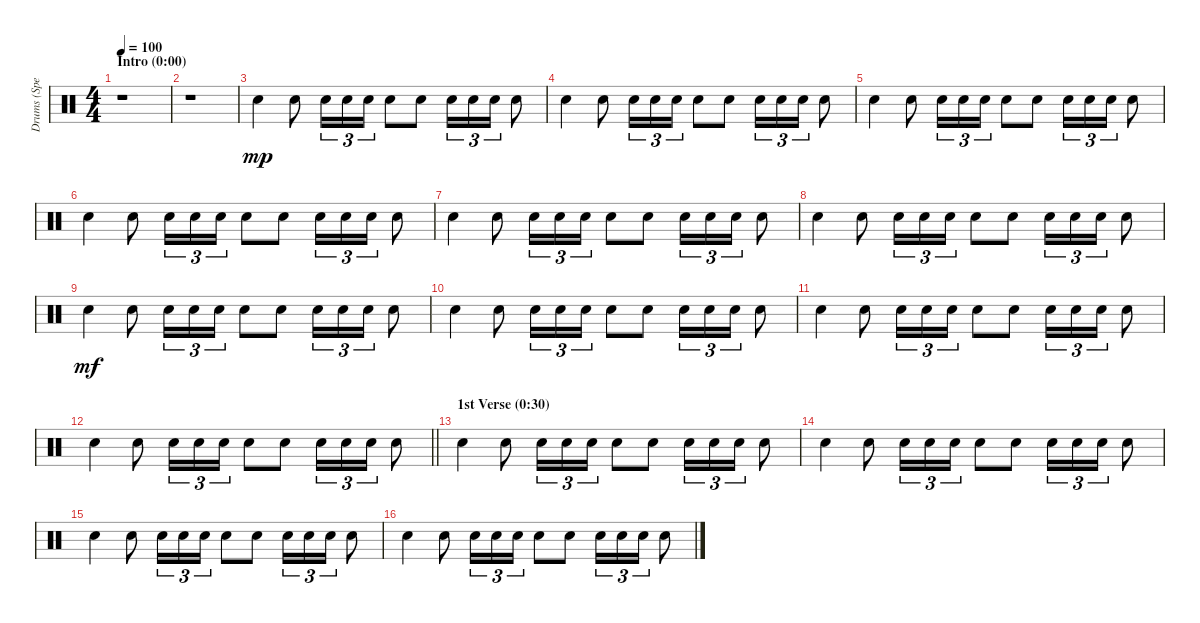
\track ("Drums (Spencer Dryden)" "Drums (Spe") {instrument percussion}
\staff {score}
\articulation defaults
\ts (4 4)
\section ("" "Intro (0:00)")
\tempo 100
\clef neutral
\ks c
r.1{dy mp} |
r.1 |
"Snare (hit) 2".4 "Snare (hit) 2".8 "Snare (hit) 2".16{tu (3 2)} "Snare (hit) 2".16{tu (3 2)} "Snare (hit) 2".16{tu (3 2)} "Snare (hit) 2".8 "Snare (hit) 2".8 "Snare (hit) 2".16{tu (3 2)} "Snare (hit) 2".16{tu (3 2)} "Snare (hit) 2".16{tu (3 2)} "Snare (hit) 2".8 |
"Snare (hit) 2".4 "Snare (hit) 2".8 "Snare (hit) 2".16{tu (3 2)} "Snare (hit) 2".16{tu (3 2)} "Snare (hit) 2".16{tu (3 2)} "Snare (hit) 2".8 "Snare (hit) 2".8 "Snare (hit) 2".16{tu (3 2)} "Snare (hit) 2".16{tu (3 2)} "Snare (hit) 2".16{tu (3 2)} "Snare (hit) 2".8 |
"Snare (hit) 2".4 "Snare (hit) 2".8 "Snare (hit) 2".16{tu (3 2)} "Snare (hit) 2".16{tu (3 2)} "Snare (hit) 2".16{tu (3 2)} "Snare (hit) 2".8 "Snare (hit) 2".8 "Snare (hit) 2".16{tu (3 2)} "Snare (hit) 2".16{tu (3 2)} "Snare (hit) 2".16{tu (3 2)} "Snare (hit) 2".8 |
"Snare (hit) 2".4 "Snare (hit) 2".8 "Snare (hit) 2".16{tu (3 2)} "Snare (hit) 2".16{tu (3 2)} "Snare (hit) 2".16{tu (3 2)} "Snare (hit) 2".8 "Snare (hit) 2".8 "Snare (hit) 2".16{tu (3 2)} "Snare (hit) 2".16{tu (3 2)} "Snare (hit) 2".16{tu (3 2)} "Snare (hit) 2".8 |
"Snare (hit) 2".4 "Snare (hit) 2".8 "Snare (hit) 2".16{tu (3 2)} "Snare (hit) 2".16{tu (3 2)} "Snare (hit) 2".16{tu (3 2)} "Snare (hit) 2".8 "Snare (hit) 2".8 "Snare (hit) 2".16{tu (3 2)} "Snare (hit) 2".16{tu (3 2)} "Snare (hit) 2".16{tu (3 2)} "Snare (hit) 2".8 |
"Snare (hit) 2".4 "Snare (hit) 2".8 "Snare (hit) 2".16{tu (3 2)} "Snare (hit) 2".16{tu (3 2)} "Snare (hit) 2".16{tu (3 2)} "Snare (hit) 2".8 "Snare (hit) 2".8 "Snare (hit) 2".16{tu (3 2)} "Snare (hit) 2".16{tu (3 2)} "Snare (hit) 2".16{tu (3 2)} "Snare (hit) 2".8 |
"Snare (hit) 2".4{dy mf} "Snare (hit) 2".8 "Snare (hit) 2".16{tu (3 2)} "Snare (hit) 2".16{tu (3 2)} "Snare (hit) 2".16{tu (3 2)} "Snare (hit) 2".8 "Snare (hit) 2".8 "Snare (hit) 2".16{tu (3 2)} "Snare (hit) 2".16{tu (3 2)} "Snare (hit) 2".16{tu (3 2)} "Snare (hit) 2".8 |
"Snare (hit) 2".4 "Snare (hit) 2".8 "Snare (hit) 2".16{tu (3 2)} "Snare (hit) 2".16{tu (3 2)} "Snare (hit) 2".16{tu (3 2)} "Snare (hit) 2".8 "Snare (hit) 2".8 "Snare (hit) 2".16{tu (3 2)} "Snare (hit) 2".16{tu (3 2)} "Snare (hit) 2".16{tu (3 2)} "Snare (hit) 2".8 |
"Snare (hit) 2".4 "Snare (hit) 2".8 "Snare (hit) 2".16{tu (3 2)} "Snare (hit) 2".16{tu (3 2)} "Snare (hit) 2".16{tu (3 2)} "Snare (hit) 2".8 "Snare (hit) 2".8 "Snare (hit) 2".16{tu (3 2)} "Snare (hit) 2".16{tu (3 2)} "Snare (hit) 2".16{tu (3 2)} "Snare (hit) 2".8 |
\barLineRight lightlight "Snare (hit) 2".4 "Snare (hit) 2".8 "Snare (hit) 2".16{tu (3 2)} "Snare (hit) 2".16{tu (3 2)} "Snare (hit) 2".16{tu (3 2)} "Snare (hit) 2".8 "Snare (hit) 2".8 "Snare (hit) 2".16{tu (3 2)} "Snare (hit) 2".16{tu (3 2)} "Snare (hit) 2".16{tu (3 2)} "Snare (hit) 2".8
|
\section ("" "1st Verse (0:30)")
"Snare (hit) 2".4 "Snare (hit) 2".8 "Snare (hit) 2".16{tu (3 2)} "Snare (hit) 2".16{tu (3 2)} "Snare (hit) 2".16{tu (3 2)} "Snare (hit) 2".8 "Snare (hit) 2".8 "Snare (hit) 2".16{tu (3 2)} "Snare (hit) 2".16{tu (3 2)} "Snare (hit) 2".16{tu (3 2)} "Snare (hit) 2".8 |
"Snare (hit) 2".4 "Snare (hit) 2".8 "Snare (hit) 2".16{tu (3 2)} "Snare (hit) 2".16{tu (3 2)} "Snare (hit) 2".16{tu (3 2)} "Snare (hit) 2".8 "Snare (hit) 2".8 "Snare (hit) 2".16{tu (3 2)} "Snare (hit) 2".16{tu (3 2)} "Snare (hit) 2".16{tu (3 2)} "Snare (hit) 2".8 |
"Snare (hit) 2".4 "Snare (hit) 2".8 "Snare (hit) 2".16{tu (3 2)} "Snare (hit) 2".16{tu (3 2)} "Snare (hit) 2".16{tu (3 2)} "Snare (hit) 2".8 "Snare (hit) 2".8 "Snare (hit) 2".16{tu (3 2)} "Snare (hit) 2".16{tu (3 2)} "Snare (hit) 2".16{tu (3 2)} "Snare (hit) 2".8 |
"Snare (hit) 2".4 "Snare (hit) 2".8 "Snare (hit) 2".16{tu (3 2)} "Snare (hit) 2".16{tu (3 2)} "Snare (hit) 2".16{tu (3 2)} "Snare (hit) 2".8 "Snare (hit) 2".8 "Snare (hit) 2".16{tu (3 2)} "Snare (hit) 2".16{tu (3 2)} "Snare (hit) 2".16{tu (3 2)} "Snare (hit) 2".8
